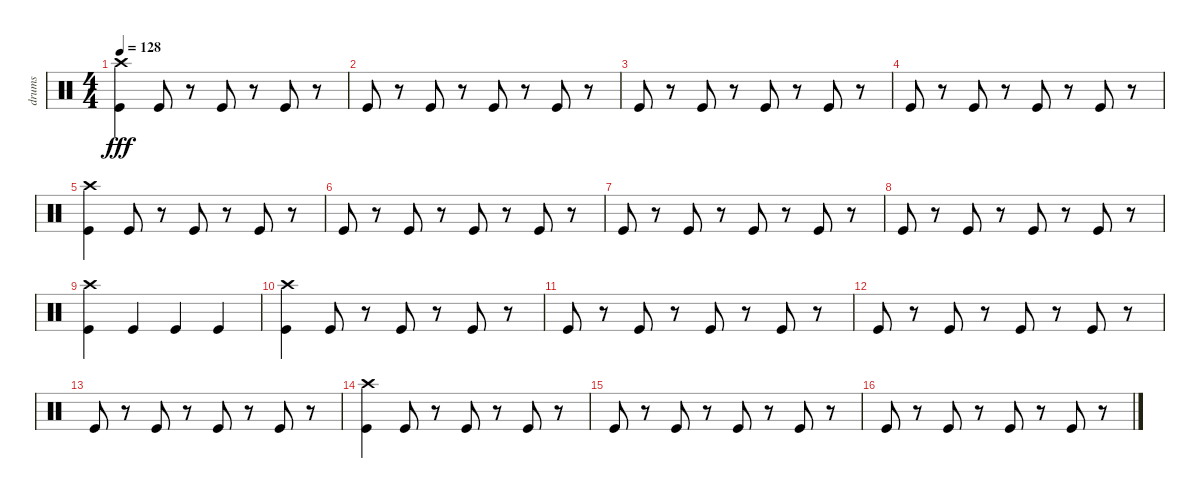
\track ("drums" "drums") {instrument percussion}
\staff {score}
\articulation defaults
\ts (4 4)
\tempo 128
\clef neutral
\ks c
("Kick (hit)" "Crash high (hit)").4{dy fff} "Kick (hit)".8 r.8 "Kick (hit)".8 r.8 "Kick (hit)".8 r.8 |
"Kick (hit)".8 r.8 "Kick (hit)".8 r.8 "Kick (hit)".8 r.8 "Kick (hit)".8 r.8 |
"Kick (hit)".8 r.8 "Kick (hit)".8 r.8 "Kick (hit)".8 r.8 "Kick (hit)".8 r.8 |
"Kick (hit)".8 r.8 "Kick (hit)".8 r.8 "Kick (hit)".8 r.8 "Kick (hit)".8 r.8 |
("Kick (hit)" "Crash high (hit)").4 "Kick (hit)".8 r.8 "Kick (hit)".8 r.8 "Kick (hit)".8 r.8 |
"Kick (hit)".8 r.8 "Kick (hit)".8 r.8 "Kick (hit)".8 r.8 "Kick (hit)".8 r.8 |
"Kick (hit)".8 r.8 "Kick (hit)".8 r.8 "Kick (hit)".8 r.8 "Kick (hit)".8 r.8 |
"Kick (hit)".8 r.8 "Kick (hit)".8 r.8 "Kick (hit)".8 r.8 "Kick (hit)".8 r.8 |
("Kick (hit)" "Crash high (hit)").4 "Kick (hit)".4 "Kick (hit)".4 "Kick (hit)".4 |
("Kick (hit)" "Crash high (hit)").4 "Kick (hit)".8 r.8 "Kick (hit)".8 r.8 "Kick (hit)".8 r.8 |
"Kick (hit)".8 r.8 "Kick (hit)".8 r.8 "Kick (hit)".8 r.8 "Kick (hit)".8 r.8 |
"Kick (hit)".8 r.8 "Kick (hit)".8 r.8 "Kick (hit)".8 r.8 "Kick (hit)".8 r.8 |
"Kick (hit)".8 r.8 "Kick (hit)".8 r.8 "Kick (hit)".8 r.8 "Kick (hit)".8 r.8 |
("Kick (hit)" "Crash high (hit)").4 "Kick (hit)".8 r.8 "Kick (hit)".8 r.8 "Kick (hit)".8 r.8 |
"Kick (hit)".8 r.8 "Kick (hit)".8 r.8 "Kick (hit)".8 r.8 "Kick (hit)".8 r.8 |
"Kick (hit)".8 r.8 "Kick (hit)".8 r.8 "Kick (hit)".8 r.8 "Kick (hit)".8 r.8
